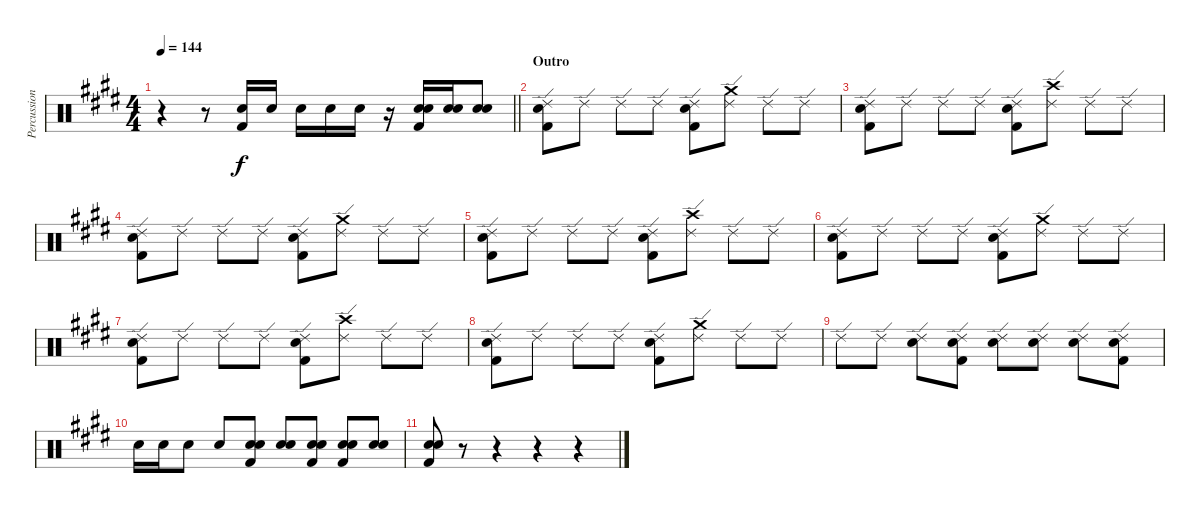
\track ("Percussion" "Percussion") {instrument percussion}
\staff {score}
\articulation defaults
\ts (4 4)
\tempo 144
\clef neutral
\barLineRight lightlight
\ks c#minor
r.4{dy f} r.8 ("Snare (hit) 2" "Kick (hit) 2").16 "Snare (hit) 2".16 "Snare (hit) 2".16 "Snare (hit) 2".16 "Snare (hit) 2".16 r.16 ("Snare (hit) 2" "Snare (hit) 2" "Kick (hit) 2").16 ("Snare (hit) 2" "Snare (hit) 2").16 ("Snare (hit) 2" "Snare (hit) 2").8 |
\section ("" "Outro")
("Ride (edge) 2" "Snare (hit) 2" "Kick (hit) 2").8 "Ride (edge) 2".8 "Ride (edge) 2".8 "Ride (edge) 2".8 ("Ride (edge) 2" "Snare (hit) 2" "Kick (hit) 2").8 ("Ride (edge) 2" "Crash medium (hit)").8 "Ride (edge) 2".8 "Ride (edge) 2".8 |
("Ride (edge) 2" "Snare (hit) 2" "Kick (hit) 2").8 "Ride (edge) 2".8 "Ride (edge) 2".8 "Ride (edge) 2".8 ("Ride (edge) 2" "Snare (hit) 2" "Kick (hit) 2").8 ("Ride (edge) 2" "Crash high (hit)").8 "Ride (edge) 2".8 "Ride (edge) 2".8 |
("Ride (edge) 2" "Snare (hit) 2" "Kick (hit) 2").8 "Ride (edge) 2".8 "Ride (edge) 2".8 "Ride (edge) 2".8 ("Ride (edge) 2" "Snare (hit) 2" "Kick (hit) 2").8 ("Ride (edge) 2" "Crash medium (hit)").8 "Ride (edge) 2".8 "Ride (edge) 2".8 |
("Ride (edge) 2" "Snare (hit) 2" "Kick (hit) 2").8 "Ride (edge) 2".8 "Ride (edge) 2".8 "Ride (edge) 2".8 ("Ride (edge) 2" "Snare (hit) 2" "Kick (hit) 2").8 ("Ride (edge) 2" "Crash high (hit)").8 "Ride (edge) 2".8 "Ride (edge) 2".8 |
("Ride (edge) 2" "Snare (hit) 2" "Kick (hit) 2").8 "Ride (edge) 2".8 "Ride (edge) 2".8 "Ride (edge) 2".8 ("Ride (edge) 2" "Snare (hit) 2" "Kick (hit) 2").8 ("Ride (edge) 2" "Crash medium (hit)").8 "Ride (edge) 2".8 "Ride (edge) 2".8 |
("Ride (edge) 2" "Snare (hit) 2" "Kick (hit) 2").8 "Ride (edge) 2".8 "Ride (edge) 2".8 "Ride (edge) 2".8 ("Ride (edge) 2" "Snare (hit) 2" "Kick (hit) 2").8 ("Ride (edge) 2" "Crash high (hit)").8 "Ride (edge) 2".8 "Ride (edge) 2".8 |
("Ride (edge) 2" "Snare (hit) 2" "Kick (hit) 2").8 "Ride (edge) 2".8 "Ride (edge) 2".8 "Ride (edge) 2".8 ("Ride (edge) 2" "Snare (hit) 2" "Kick (hit) 2").8 ("Ride (edge) 2" "Crash medium (hit)").8 "Ride (edge) 2".8 "Ride (edge) 2".8 |
"Ride (edge) 2".8 "Ride (edge) 2".8 ("Ride (edge) 2" "Snare (hit) 2").8 ("Ride (edge) 2" "Snare (hit) 2" "Kick (hit) 2").8 ("Ride (edge) 2" "Snare (hit) 2").8 ("Ride (edge) 2" "Snare (hit) 2").8 ("Ride (edge) 2" "Snare (hit) 2").8 ("Ride (edge) 2" "Snare (hit) 2" "Kick (hit) 2").8 |
"Snare (hit) 2".16 "Snare (hit) 2".16 "Snare (hit) 2".8 "Snare (hit) 2".8 ("Snare (hit) 2" "Snare (hit) 2" "Kick (hit) 2").8 ("Snare (hit) 2" "Snare (hit) 2").8 ("Snare (hit) 2" "Snare (hit) 2" "Kick (hit) 2").8 ("Snare (hit) 2" "Snare (hit) 2" "Kick (hit) 2").8 ("Snare (hit) 2" "Snare (hit) 2").8 |
("Snare (hit) 2" "Snare (hit) 2" "Kick (hit) 2").8 r.8 r.4 r.4 r.4
